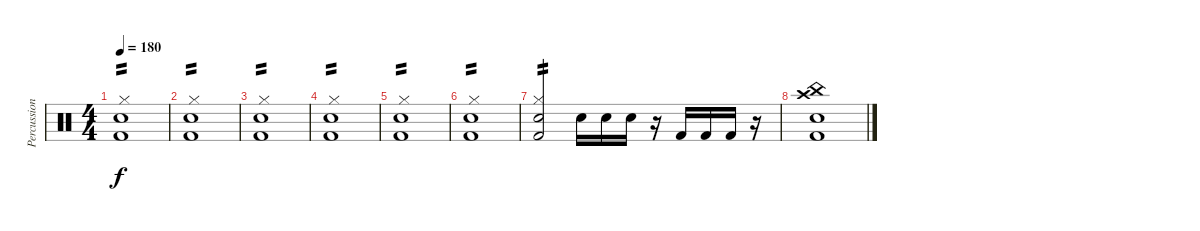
\track ("Percussion" "Percussion") {instrument percussion}
\staff {score}
\articulation defaults
\ts (4 4)
\tempo 180
\clef neutral
\ks c
("Electric Snare (hit)" "Hi-Hat (closed)" "Kick (hit) 2").1{tp 2 dy f} |
("Electric Snare (hit)" "Hi-Hat (closed)" "Kick (hit) 2").1{tp 2} |
("Electric Snare (hit)" "Hi-Hat (closed)" "Kick (hit) 2").1{tp 2} |
("Electric Snare (hit)" "Hi-Hat (closed)" "Kick (hit) 2").1{tp 2} |
("Electric Snare (hit)" "Hi-Hat (closed)" "Kick (hit) 2").1{tp 2} |
("Electric Snare (hit)" "Hi-Hat (closed)" "Kick (hit) 2").1{tp 2} |
("Electric Snare (hit)" "Hi-Hat (closed)" "Kick (hit) 2").2{tp 2} "Electric Snare (hit)".16 "Electric Snare (hit)".16 "Electric Snare (hit)".16 r.16 "Kick (hit) 2".16 "Kick (hit) 2".16 "Kick (hit) 2".16 r.16 |
("China (hit)" "Electric Snare (hit)" "Crash high (hit)" "Kick (hit) 2").1
